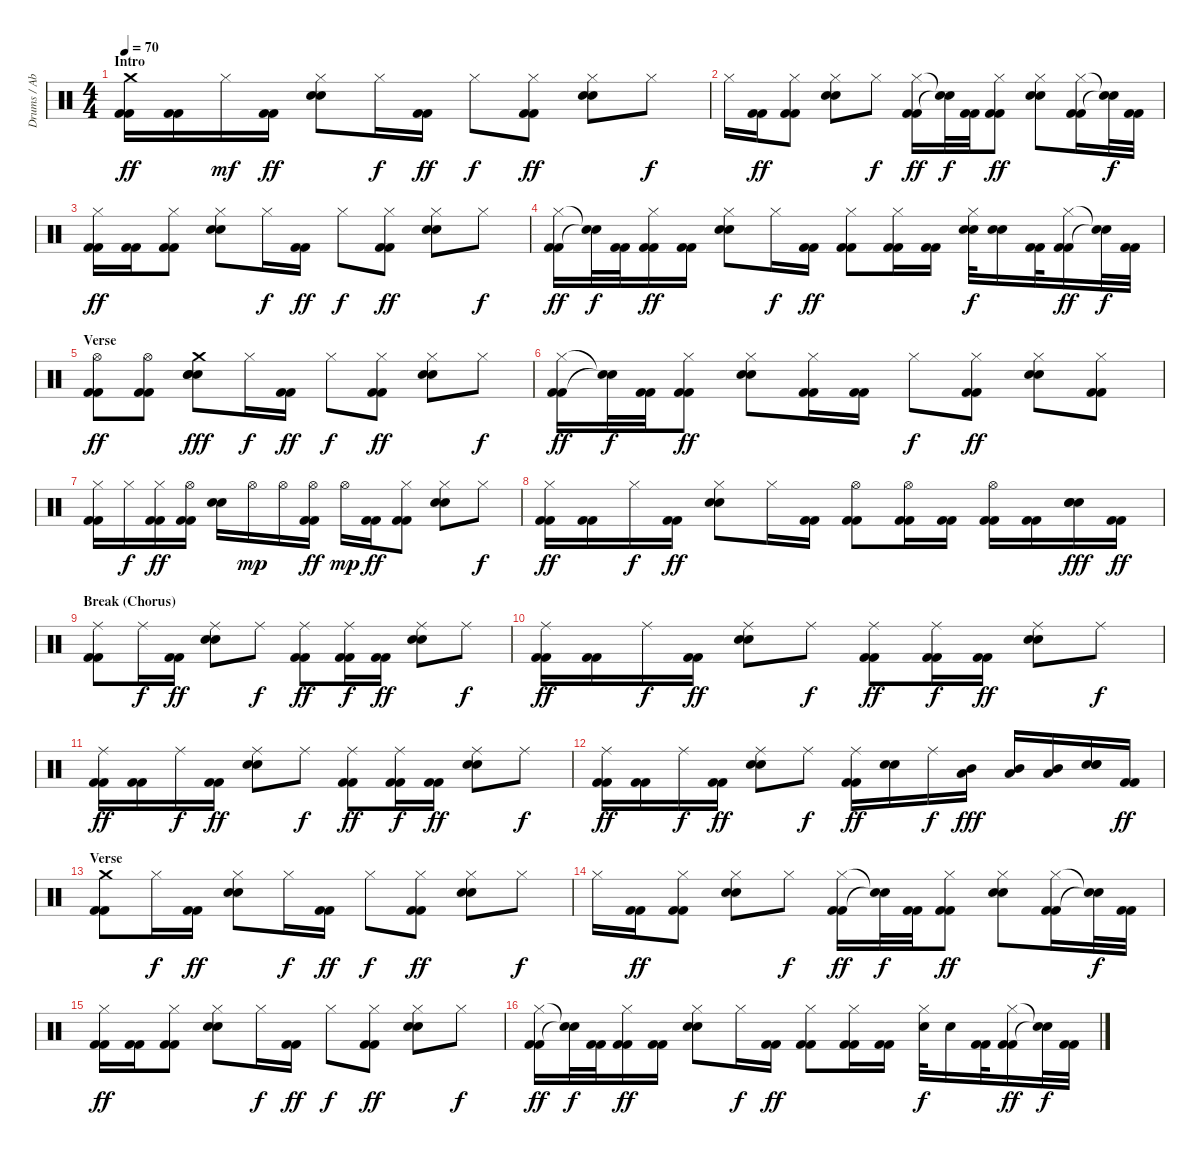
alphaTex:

\track ("Drums / Abe Cunningham" "Drums / Ab") {instrument percussion}
\staff {score}
\articulation defaults
\ts (4 4)
\section ("" "Intro")
\tempo 70
\clef neutral
\ks c
("Crash medium (hit)" "Kick (hit) 2" "Kick (hit) 2").16{dy ff} ("Kick (hit) 2" "Kick (hit) 2").16 "Hi-Hat (closed)".16{dy mf} ("Kick (hit) 2" "Kick (hit) 2").16{dy ff} ("Hi-Hat (closed)" "Electric Snare (hit)" "Electric Snare (hit)").8 "Hi-Hat (closed)".16{dy f} ("Kick (hit) 2" "Kick (hit) 2").16{dy ff} "Hi-Hat (closed)".8{dy f} ("Hi-Hat (closed)" "Kick (hit) 2" "Kick (hit) 2").8{dy ff} ("Hi-Hat (closed)" "Electric Snare (hit)" "Electric Snare (hit)").8 "Hi-Hat (closed)".8{dy f} |
"Hi-Hat (closed)".16 ("Kick (hit) 2" "Kick (hit) 2").16{dy ff} ("Hi-Hat (closed)" "Kick (hit) 2" "Kick (hit) 2").8 ("Hi-Hat (closed)" "Electric Snare (hit)" "Electric Snare (hit)").8 "Hi-Hat (closed)".8{dy f} ("Hi-Hat (closed)" "Kick (hit) 2" "Kick (hit) 2").16{dy ff} ("Snare (hit)"{t} "Snare (hit)"{t}).32{dy f} ("Kick (hit) 2" "Kick (hit) 2").32 ("Hi-Hat (closed)" "Kick (hit) 2" "Kick (hit) 2").8{dy ff} ("Hi-Hat (closed)" "Electric Snare (hit)" "Electric Snare (hit)").8 ("Hi-Hat (closed)" "Kick (hit) 2" "Kick (hit) 2").16 ("Snare (hit)"{t} "Snare (hit)"{t}).32{dy f} ("Kick (hit) 2" "Kick (hit) 2").32 |
("Hi-Hat (closed)" "Kick (hit) 2" "Kick (hit) 2").16{dy ff} ("Kick (hit) 2" "Kick (hit) 2").16 ("Hi-Hat (closed)" "Kick (hit) 2" "Kick (hit) 2").8 ("Hi-Hat (closed)" "Electric Snare (hit)" "Electric Snare (hit)").8 "Hi-Hat (closed)".16{dy f} ("Kick (hit) 2" "Kick (hit) 2").16{dy ff} "Hi-Hat (closed)".8{dy f} ("Hi-Hat (closed)" "Kick (hit) 2" "Kick (hit) 2").8{dy ff} ("Hi-Hat (closed)" "Electric Snare (hit)" "Electric Snare (hit)").8 "Hi-Hat (closed)".8{dy f} |
("Hi-Hat (closed)" "Kick (hit) 2" "Kick (hit) 2").16{dy ff} ("Snare (hit)"{t} "Snare (hit)"{t}).32{dy f} ("Kick (hit) 2" "Kick (hit) 2").32 ("Hi-Hat (closed)" "Kick (hit) 2" "Kick (hit) 2").16{dy ff} ("Kick (hit) 2" "Kick (hit) 2").16 ("Hi-Hat (closed)" "Electric Snare (hit)" "Electric Snare (hit)").8 "Hi-Hat (closed)".16{dy f} ("Kick (hit) 2" "Kick (hit) 2").16{dy ff} ("Hi-Hat (closed)" "Kick (hit) 2" "Kick (hit) 2").8 ("Hi-Hat (closed)" "Kick (hit) 2" "Kick (hit) 2").16 ("Kick (hit) 2" "Kick (hit) 2").16 ("Hi-Hat (closed)" "Electric Snare (hit)" "Electric Snare (hit)").32{dy f} ("Electric Snare (hit)" "Electric Snare (hit)").16 ("Kick (hit) 2" "Kick (hit) 2").32 ("Hi-Hat (closed)" "Kick (hit) 2" "Kick (hit) 2").16{dy ff} ("Snare (hit)"{t} "Snare (hit)"{t}).32{dy f} ("Kick (hit) 2" "Kick (hit) 2").32 |
\section ("" "Verse")
("Hi-Hat (open)" "Kick (hit) 2" "Kick (hit) 2").8{dy ff} ("Hi-Hat (open)" "Kick (hit) 2" "Kick (hit) 2").8 ("Crash medium (hit)" "Electric Snare (hit)" "Electric Snare (hit)" "Electric Snare (hit)").8{dy fff} "Hi-Hat (closed)".16{dy f} ("Kick (hit) 2" "Kick (hit) 2").16{dy ff} "Hi-Hat (closed)".8{dy f} ("Hi-Hat (closed)" "Kick (hit) 2" "Kick (hit) 2").8{dy ff} ("Hi-Hat (closed)" "Electric Snare (hit)" "Electric Snare (hit)").8 "Hi-Hat (closed)".8{dy f} |
("Hi-Hat (closed)" "Kick (hit) 2" "Kick (hit) 2").16{dy ff} ("Snare (hit)"{t} "Snare (hit)"{t}).32{dy f} ("Kick (hit) 2" "Kick (hit) 2").32 ("Hi-Hat (closed)" "Kick (hit) 2" "Kick (hit) 2").8{dy ff} ("Hi-Hat (closed)" "Electric Snare (hit)" "Electric Snare (hit)").8 ("Hi-Hat (closed)" "Kick (hit) 2" "Kick (hit) 2").16 ("Kick (hit) 2" "Kick (hit) 2").16 "Hi-Hat (closed)".8{dy f} ("Hi-Hat (closed)" "Kick (hit) 2" "Kick (hit) 2").8{dy ff} ("Hi-Hat (closed)" "Electric Snare (hit)" "Electric Snare (hit)").8 ("Hi-Hat (closed)" "Kick (hit) 2" "Kick (hit) 2").8 |
("Hi-Hat (closed)" "Kick (hit) 2" "Kick (hit) 2").16 "Hi-Hat (closed)".16{dy f} ("Hi-Hat (closed)" "Kick (hit) 2" "Kick (hit) 2").16{dy ff} ("Hi-Hat (open)" "Kick (hit) 2" "Kick (hit) 2").16 ("Electric Snare (hit)" "Electric Snare (hit)").16 "Hi-Hat (open)".16{dy mp} "Hi-Hat (open)".16 ("Hi-Hat (open)" "Kick (hit) 2" "Kick (hit) 2").16{dy ff} "Hi-Hat (open)".16{dy mp} ("Kick (hit) 2" "Kick (hit) 2").16{dy ff} ("Hi-Hat (closed)" "Kick (hit) 2" "Kick (hit) 2").8 ("Hi-Hat (closed)" "Electric Snare (hit)" "Electric Snare (hit)").8 "Hi-Hat (closed)".8{dy f} |
("Hi-Hat (closed)" "Kick (hit) 2" "Kick (hit) 2").16{dy ff} ("Kick (hit) 2" "Kick (hit) 2").16 "Hi-Hat (closed)".16{dy f} ("Kick (hit) 2" "Kick (hit) 2").16{dy ff} ("Hi-Hat (closed)" "Electric Snare (hit)" "Electric Snare (hit)").8 "Hi-Hat (closed)".16 ("Kick (hit) 2" "Kick (hit) 2").16 ("Hi-Hat (open)" "Kick (hit) 2" "Kick (hit) 2").8 ("Hi-Hat (open)" "Kick (hit) 2" "Kick (hit) 2").16 ("Kick (hit) 2" "Kick (hit) 2").16 ("Hi-Hat (open)" "Kick (hit) 2" "Kick (hit) 2").16 ("Kick (hit) 2" "Kick (hit) 2").16 ("Electric Snare (hit)" "Electric Snare (hit)" "Electric Snare (hit)").16{dy fff} ("Kick (hit) 2" "Kick (hit) 2").16{dy ff} |
\section ("" "Break (Chorus)")
("Ride (middle)" "Kick (hit) 2" "Kick (hit) 2").8 "Ride (middle)".16{dy f} ("Kick (hit) 2" "Kick (hit) 2").16{dy ff} ("Ride (middle)" "Electric Snare (hit)" "Electric Snare (hit)").8 "Ride (middle)".8{dy f} ("Ride (middle)" "Kick (hit) 2" "Kick (hit) 2").8{dy ff} ("Ride (middle)" "Kick (hit) 2" "Kick (hit) 2").16{dy f} ("Kick (hit) 2" "Kick (hit) 2").16{dy ff} ("Ride (middle)" "Electric Snare (hit)" "Electric Snare (hit)").8 "Ride (middle)".8{dy f} |
("Ride (middle)" "Kick (hit) 2" "Kick (hit) 2").16{dy ff} ("Kick (hit) 2" "Kick (hit) 2").16 "Ride (middle)".16{dy f} ("Kick (hit) 2" "Kick (hit) 2").16{dy ff} ("Ride (middle)" "Electric Snare (hit)" "Electric Snare (hit)").8 "Ride (middle)".8{dy f} ("Ride (middle)" "Kick (hit) 2" "Kick (hit) 2").8{dy ff} ("Ride (middle)" "Kick (hit) 2" "Kick (hit) 2").16{dy f} ("Kick (hit) 2" "Kick (hit) 2").16{dy ff} ("Ride (middle)" "Electric Snare (hit)" "Electric Snare (hit)").8 "Ride (middle)".8{dy f} |
("Ride (middle)" "Kick (hit) 2" "Kick (hit) 2").16{dy ff} ("Kick (hit) 2" "Kick (hit) 2").16 "Ride (middle)".16{dy f} ("Kick (hit) 2" "Kick (hit) 2").16{dy ff} ("Ride (middle)" "Electric Snare (hit)" "Electric Snare (hit)").8 "Ride (middle)".8{dy f} ("Ride (middle)" "Kick (hit) 2" "Kick (hit) 2").8{dy ff} ("Ride (middle)" "Kick (hit) 2" "Kick (hit) 2").16{dy f} ("Kick (hit) 2" "Kick (hit) 2").16{dy ff} ("Ride (middle)" "Electric Snare (hit)" "Electric Snare (hit)").8 "Ride (middle)".8{dy f} |
("Ride (middle)" "Kick (hit) 2" "Kick (hit) 2").16{dy ff} ("Kick (hit) 2" "Kick (hit) 2").16 "Ride (middle)".16{dy f} ("Kick (hit) 2" "Kick (hit) 2").16{dy ff} ("Ride (middle)" "Electric Snare (hit)" "Electric Snare (hit)").8 "Ride (middle)".8{dy f} ("Ride (middle)" "Kick (hit) 2" "Kick (hit) 2").16{dy ff} ("Electric Snare (hit)" "Electric Snare (hit)").16 "Ride (middle)".16{dy f} ("Mid Tom (hit)" "Low Tom (hit)").16{dy fff} ("Mid Tom (hit)" "Low Tom (hit)").16 ("Mid Tom (hit)" "Low Tom (hit)").16 ("Electric Snare (hit)" "Electric Snare (hit)" "Electric Snare (hit)").16 ("Kick (hit) 2" "Kick (hit) 2").16{dy ff} |
\section ("" "Verse")
("Crash medium (hit)" "Kick (hit) 2" "Kick (hit) 2").8 "Hi-Hat (closed)".16{dy f} ("Kick (hit) 2" "Kick (hit) 2").16{dy ff} ("Hi-Hat (closed)" "Electric Snare (hit)" "Electric Snare (hit)").8 "Hi-Hat (closed)".16{dy f} ("Kick (hit) 2" "Kick (hit) 2").16{dy ff} "Hi-Hat (closed)".8{dy f} ("Hi-Hat (closed)" "Kick (hit) 2" "Kick (hit) 2").8{dy ff} ("Hi-Hat (closed)" "Electric Snare (hit)" "Electric Snare (hit)").8 "Hi-Hat (closed)".8{dy f} |
"Hi-Hat (closed)".16 ("Kick (hit) 2" "Kick (hit) 2").16{dy ff} ("Hi-Hat (closed)" "Kick (hit) 2" "Kick (hit) 2").8 ("Hi-Hat (closed)" "Electric Snare (hit)" "Electric Snare (hit)").8 "Hi-Hat (closed)".8{dy f} ("Hi-Hat (closed)" "Kick (hit) 2" "Kick (hit) 2").16{dy ff} ("Snare (hit)"{t} "Snare (hit)"{t}).32{dy f} ("Kick (hit) 2" "Kick (hit) 2").32 ("Hi-Hat (closed)" "Kick (hit) 2" "Kick (hit) 2").8{dy ff} ("Hi-Hat (closed)" "Electric Snare (hit)" "Electric Snare (hit)").8 ("Hi-Hat (closed)" "Kick (hit) 2" "Kick (hit) 2").16 ("Snare (hit)"{t} "Snare (hit)"{t}).32{dy f} ("Kick (hit) 2" "Kick (hit) 2").32 |
("Hi-Hat (closed)" "Kick (hit) 2" "Kick (hit) 2").16{dy ff} ("Kick (hit) 2" "Kick (hit) 2").16 ("Hi-Hat (closed)" "Kick (hit) 2" "Kick (hit) 2").8 ("Hi-Hat (closed)" "Electric Snare (hit)" "Electric Snare (hit)").8 "Hi-Hat (closed)".16{dy f} ("Kick (hit) 2" "Kick (hit) 2").16{dy ff} "Hi-Hat (closed)".8{dy f} ("Hi-Hat (closed)" "Kick (hit) 2" "Kick (hit) 2").8{dy ff} ("Hi-Hat (closed)" "Electric Snare (hit)" "Electric Snare (hit)").8 "Hi-Hat (closed)".8{dy f} |
("Hi-Hat (closed)" "Kick (hit) 2" "Kick (hit) 2").16{dy ff} ("Snare (hit)"{t} "Snare (hit)"{t}).32{dy f} ("Kick (hit) 2" "Kick (hit) 2").32 ("Hi-Hat (closed)" "Kick (hit) 2" "Kick (hit) 2").16{dy ff} ("Kick (hit) 2" "Kick (hit) 2").16 ("Hi-Hat (closed)" "Electric Snare (hit)" "Electric Snare (hit)").8 "Hi-Hat (closed)".16{dy f} ("Kick (hit) 2" "Kick (hit) 2").16{dy ff} ("Hi-Hat (closed)" "Kick (hit) 2" "Kick (hit) 2").8 ("Hi-Hat (closed)" "Kick (hit) 2" "Kick (hit) 2").16 ("Kick (hit) 2" "Kick (hit) 2").16 ("Hi-Hat (closed)" "Electric Snare (hit)").32{dy f} "Electric Snare (hit)".16 ("Kick (hit) 2" "Kick (hit) 2").32 ("Hi-Hat (closed)" "Kick (hit) 2" "Kick (hit) 2").16{dy ff} ("Snare (hit)"{t} "Snare (hit)"{t}).32{dy f} ("Kick (hit) 2" "Kick (hit) 2").32
